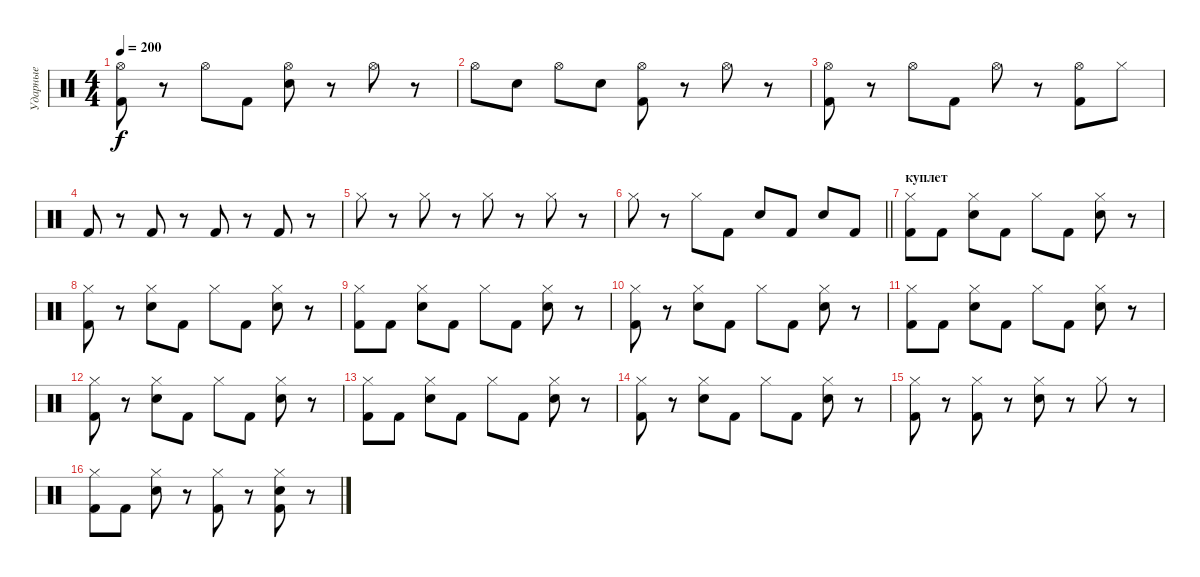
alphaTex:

\track ("Ударные" "Ударные") {instrument percussion}
\staff {score}
\articulation defaults
\ts (4 4)
\tempo 200
\clef neutral
\ks c
("Hi-Hat (open)" "Kick (hit) 2").8{dy f} r.8 "Hi-Hat (open)".8 "Kick (hit) 2".8 ("Hi-Hat (open)" "Electric Snare (hit)").8 r.8 "Hi-Hat (open)".8 r.8 |
"Hi-Hat (open)".8 "Electric Snare (hit)".8 "Hi-Hat (open)".8 "Electric Snare (hit)".8 ("Hi-Hat (open)" "Kick (hit) 2").8 r.8 "Hi-Hat (open)".8 r.8 |
("Hi-Hat (open)" "Kick (hit) 2").8 r.8 "Hi-Hat (open)".8 "Kick (hit) 2".8 "Hi-Hat (open)".8 r.8 ("Hi-Hat (open)" "Kick (hit) 2").8 "Hi-Hat (closed)".8 |
"Kick (hit) 2".8 r.8 "Kick (hit) 2".8 r.8 "Kick (hit) 2".8 r.8 "Kick (hit) 2".8 r.8 |
"Hi-Hat (closed)".8 r.8 "Hi-Hat (closed)".8 r.8 "Hi-Hat (closed)".8 r.8 "Hi-Hat (closed)".8 r.8 |
\barLineRight lightlight "Hi-Hat (closed)".8
r.8 "Hi-Hat (closed)".8 "Kick (hit) 2".8 "Electric Snare (hit)".8 "Kick (hit) 2".8 "Electric Snare (hit)".8 "Kick (hit) 2".8 |
\section ("" "куплет")
("Hi-Hat (closed)" "Kick (hit) 2").8 "Kick (hit) 2".8 ("Hi-Hat (closed)" "Electric Snare (hit)").8 "Kick (hit) 2".8 "Hi-Hat (closed)".8 "Kick (hit) 2".8 ("Hi-Hat (closed)" "Electric Snare (hit)").8 r.8 |
("Hi-Hat (closed)" "Kick (hit) 2").8 r.8 ("Hi-Hat (closed)" "Electric Snare (hit)").8 "Kick (hit) 2".8 "Hi-Hat (closed)".8 "Kick (hit) 2".8 ("Hi-Hat (closed)" "Electric Snare (hit)").8 r.8 |
("Hi-Hat (closed)" "Kick (hit) 2").8 "Kick (hit) 2".8 ("Hi-Hat (closed)" "Electric Snare (hit)").8 "Kick (hit) 2".8 "Hi-Hat (closed)".8 "Kick (hit) 2".8 ("Hi-Hat (closed)" "Electric Snare (hit)").8 r.8 |
("Hi-Hat (closed)" "Kick (hit) 2").8 r.8 ("Hi-Hat (closed)" "Electric Snare (hit)").8 "Kick (hit) 2".8 "Hi-Hat (closed)".8 "Kick (hit) 2".8 ("Hi-Hat (closed)" "Electric Snare (hit)").8 r.8 |
("Hi-Hat (closed)" "Kick (hit) 2").8 "Kick (hit) 2".8 ("Hi-Hat (closed)" "Electric Snare (hit)").8 "Kick (hit) 2".8 "Hi-Hat (closed)".8 "Kick (hit) 2".8 ("Hi-Hat (closed)" "Electric Snare (hit)").8 r.8 |
("Hi-Hat (closed)" "Kick (hit) 2").8 r.8 ("Hi-Hat (closed)" "Electric Snare (hit)").8 "Kick (hit) 2".8 "Hi-Hat (closed)".8 "Kick (hit) 2".8 ("Hi-Hat (closed)" "Electric Snare (hit)").8 r.8 |
("Hi-Hat (closed)" "Kick (hit) 2").8 "Kick (hit) 2".8 ("Hi-Hat (closed)" "Electric Snare (hit)").8 "Kick (hit) 2".8 "Hi-Hat (closed)".8 "Kick (hit) 2".8 ("Hi-Hat (closed)" "Electric Snare (hit)").8 r.8 |
("Hi-Hat (closed)" "Kick (hit) 2").8 r.8 ("Hi-Hat (closed)" "Electric Snare (hit)").8 "Kick (hit) 2".8 "Hi-Hat (closed)".8 "Kick (hit) 2".8 ("Hi-Hat (closed)" "Electric Snare (hit)").8 r.8 |
("Hi-Hat (closed)" "Kick (hit) 2").8 r.8 ("Hi-Hat (closed)" "Kick (hit) 2").8 r.8 ("Hi-Hat (closed)" "Electric Snare (hit)").8 r.8 "Hi-Hat (closed)".8 r.8 |
("Hi-Hat (closed)" "Kick (hit) 2").8 "Kick (hit) 2".8 ("Hi-Hat (closed)" "Electric Snare (hit)").8 r.8 ("Hi-Hat (closed)" "Kick (hit) 2").8 r.8 ("Hi-Hat (closed)" "Electric Snare (hit)" "Kick (hit) 2").8 r.8
